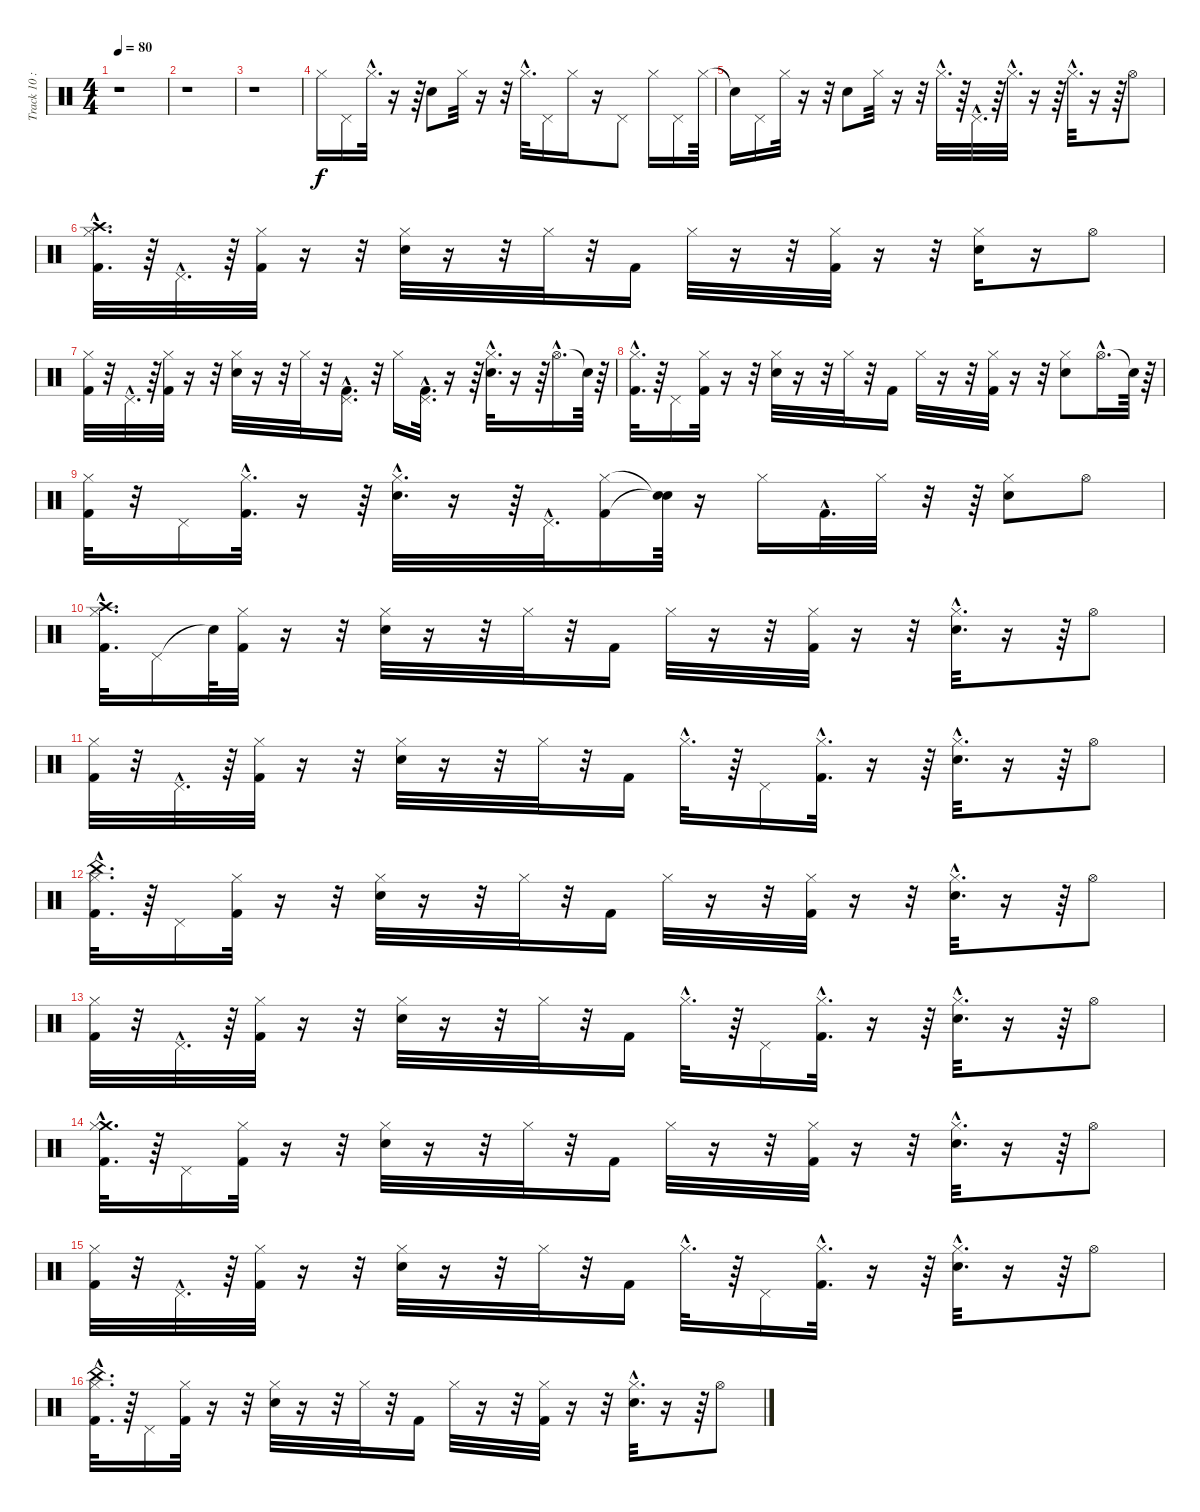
\track ("Track 10 : unspecified" "Track 10 :") {instrument percussion}
\staff {score}
\articulation defaults
\ts (4 4)
\tempo 80
\clef neutral
\ks c
r.1{dy f} |
r.1 |
r.1 |
"Hi-Hat (closed)".16 "Pedal Hi-Hat (hit)".16 "Hi-Hat (closed)"{hac}.32{d} r.16 r.64 "Snare (hit) 2".8 "Hi-Hat (closed)".32 r.16 r.32 "Hi-Hat (closed)"{hac}.32{d} "Pedal Hi-Hat (hit)".16 "Hi-Hat (closed)".16 r.16 "Pedal Hi-Hat (hit)".8 "Hi-Hat (closed)".16 "Pedal Hi-Hat (hit)".16 "Hi-Hat (closed)".64 |
"Snare (hit)"{t}.16 "Pedal Hi-Hat (hit)".16 "Hi-Hat (closed)".32 r.16 r.32 "Snare (hit) 2".8 "Hi-Hat (closed)".32 r.16 r.32 "Hi-Hat (closed)"{hac}.32{d} r.64 "Pedal Hi-Hat (hit)"{hac}.32{d} r.64 "Hi-Hat (closed)"{hac}.32{d} r.16 r.64 "Hi-Hat (closed)"{hac}.32{d} r.16 r.64 "Hi-Hat (open)".8 |
("Crash high (hit)"{hac} "Kick (hit) 2"{hac} "Hi-Hat (closed)"{hac}).32{d} r.64 "Pedal Hi-Hat (hit)"{hac}.32{d} r.64 ("Kick (hit) 2" "Hi-Hat (closed)").32 r.16 r.32 ("Snare (hit) 2" "Hi-Hat (closed)").32 r.16 r.32 "Hi-Hat (closed)".32 r.32 "Kick (hit) 2".16 "Hi-Hat (closed)".32 r.16 r.32 ("Hi-Hat (closed)" "Kick (hit) 2").32 r.16 r.32 ("Hi-Hat (closed)" "Snare (hit) 2").16 r.16 "Hi-Hat (open)".8 |
("Hi-Hat (closed)" "Kick (hit) 2").32 r.32 "Pedal Hi-Hat (hit)"{hac}.32{d} r.64 ("Kick (hit) 2" "Hi-Hat (closed)").32 r.16 r.32 ("Hi-Hat (closed)" "Snare (hit) 2").32 r.16 r.32 "Hi-Hat (closed)".32 r.32 ("Pedal Hi-Hat (hit)"{hac} "Kick (hit) 2"{hac}).16{d} r.32 "Hi-Hat (closed)".16 ("Pedal Hi-Hat (hit)"{hac} "Kick (hit) 2"{hac}).32{d} r.16 r.64 ("Snare (hit) 2"{hac} "Hi-Hat (closed)"{hac}).32{d} r.16 r.64 "Hi-Hat (open)"{hac}.16{d} "Snare (hit)"{t}.64 r.64 |
("Kick (hit) 2"{hac} "Hi-Hat (closed)"{hac}).32{d} r.64 "Pedal Hi-Hat (hit)".16 ("Kick (hit) 2" "Hi-Hat (closed)").32 r.16 r.32 ("Hi-Hat (closed)" "Snare (hit) 2").32 r.16 r.32 "Hi-Hat (closed)".32 r.32 "Kick (hit) 2".16 "Hi-Hat (closed)".32 r.16 r.32 ("Kick (hit) 2" "Hi-Hat (closed)").32 r.16 r.32 ("Hi-Hat (closed)" "Snare (hit) 2").8 "Hi-Hat (open)"{hac}.16{d} "Snare (hit)"{t}.64 r.64 |
("Hi-Hat (closed)" "Kick (hit) 2").32 r.32 "Pedal Hi-Hat (hit)".16 ("Kick (hit) 2"{hac} "Hi-Hat (closed)"{hac}).32{d} r.16 r.64 ("Hi-Hat (closed)"{hac} "Snare (hit) 2"{hac}).32{d} r.16 r.64 "Pedal Hi-Hat (hit)"{hac}.32{d} ("Kick (hit) 2" "Hi-Hat (closed)").16 ("Snare (hit)"{t} "Snare (hit)"{t}).64 r.16 "Hi-Hat (closed)".16 "Kick (hit) 2"{hac}.32{d} "Hi-Hat (closed)".32 r.32 r.64 ("Snare (hit) 2" "Hi-Hat (closed)").8 "Hi-Hat (open)".8 |
("Hi-Hat (closed)"{hac} "Kick (hit) 2"{hac} "Crash high (hit)"{hac}).32{d} "Pedal Hi-Hat (hit)".16 "Snare (hit)"{t}.64 ("Kick (hit) 2" "Hi-Hat (closed)").32 r.16 r.32 ("Snare (hit) 2" "Hi-Hat (closed)").32 r.16 r.32 "Hi-Hat (closed)".32 r.32 "Kick (hit) 2".16 "Hi-Hat (closed)".32 r.16 r.32 ("Kick (hit) 2" "Hi-Hat (closed)").32 r.16 r.32 ("Hi-Hat (closed)"{hac} "Snare (hit) 2"{hac}).32{d} r.16 r.64 "Hi-Hat (open)".8 |
("Hi-Hat (closed)" "Kick (hit) 2").32 r.32 "Pedal Hi-Hat (hit)"{hac}.32{d} r.64 ("Kick (hit) 2" "Hi-Hat (closed)").32 r.16 r.32 ("Snare (hit) 2" "Hi-Hat (closed)").32 r.16 r.32 "Hi-Hat (closed)".32 r.32 "Kick (hit) 2".16 "Hi-Hat (closed)"{hac}.32{d} r.64 "Pedal Hi-Hat (hit)".16 ("Hi-Hat (closed)"{hac} "Kick (hit) 2"{hac}).32{d} r.16 r.64 ("Snare (hit) 2"{hac} "Hi-Hat (closed)"{hac}).32{d} r.16 r.64 "Hi-Hat (open)".8 |
("Kick (hit) 2"{hac} "Hi-Hat (closed)"{hac} "China (hit)"{hac}).32{d} r.64 "Pedal Hi-Hat (hit)".16 ("Hi-Hat (closed)" "Kick (hit) 2").32 r.16 r.32 ("Snare (hit) 2" "Hi-Hat (closed)").32 r.16 r.32 "Hi-Hat (closed)".32 r.32 "Kick (hit) 2".16 "Hi-Hat (closed)".32 r.16 r.32 ("Kick (hit) 2" "Hi-Hat (closed)").32 r.16 r.32 ("Snare (hit) 2"{hac} "Hi-Hat (closed)"{hac}).32{d} r.16 r.64 "Hi-Hat (open)".8 |
("Kick (hit) 2" "Hi-Hat (closed)").32 r.32 "Pedal Hi-Hat (hit)"{hac}.32{d} r.64 ("Kick (hit) 2" "Hi-Hat (closed)").32 r.16 r.32 ("Snare (hit) 2" "Hi-Hat (closed)").32 r.16 r.32 "Hi-Hat (closed)".32 r.32 "Kick (hit) 2".16 "Hi-Hat (closed)"{hac}.32{d} r.64 "Pedal Hi-Hat (hit)".16 ("Hi-Hat (closed)"{hac} "Kick (hit) 2"{hac}).32{d} r.16 r.64 ("Hi-Hat (closed)"{hac} "Snare (hit) 2"{hac}).32{d} r.16 r.64 "Hi-Hat (open)".8 |
("Crash medium (hit)"{hac} "Kick (hit) 2"{hac} "Hi-Hat (closed)"{hac}).32{d} r.64 "Pedal Hi-Hat (hit)".16 ("Hi-Hat (closed)" "Kick (hit) 2").32 r.16 r.32 ("Snare (hit) 2" "Hi-Hat (closed)").32 r.16 r.32 "Hi-Hat (closed)".32 r.32 "Kick (hit) 2".16 "Hi-Hat (closed)".32 r.16 r.32 ("Hi-Hat (closed)" "Kick (hit) 2").32 r.16 r.32 ("Hi-Hat (closed)"{hac} "Snare (hit) 2"{hac}).32{d} r.16 r.64 "Hi-Hat (open)".8 |
("Hi-Hat (closed)" "Kick (hit) 2").32 r.32 "Pedal Hi-Hat (hit)"{hac}.32{d} r.64 ("Kick (hit) 2" "Hi-Hat (closed)").32 r.16 r.32 ("Hi-Hat (closed)" "Snare (hit) 2").32 r.16 r.32 "Hi-Hat (closed)".32 r.32 "Kick (hit) 2".16 "Hi-Hat (closed)"{hac}.32{d} r.64 "Pedal Hi-Hat (hit)".16 ("Kick (hit) 2"{hac} "Hi-Hat (closed)"{hac}).32{d} r.16 r.64 ("Hi-Hat (closed)"{hac} "Snare (hit) 2"{hac}).32{d} r.16 r.64 "Hi-Hat (open)".8 |
("Kick (hit) 2"{hac} "Hi-Hat (closed)"{hac} "China (hit)"{hac}).32{d} r.64 "Pedal Hi-Hat (hit)".16 ("Hi-Hat (closed)" "Kick (hit) 2").32 r.16 r.32 ("Hi-Hat (closed)" "Snare (hit) 2").32 r.16 r.32 "Hi-Hat (closed)".32 r.32 "Kick (hit) 2".16 "Hi-Hat (closed)".32 r.16 r.32 ("Hi-Hat (closed)" "Kick (hit) 2").32 r.16 r.32 ("Snare (hit) 2"{hac} "Hi-Hat (closed)"{hac}).32{d} r.16 r.64 "Hi-Hat (open)".8
